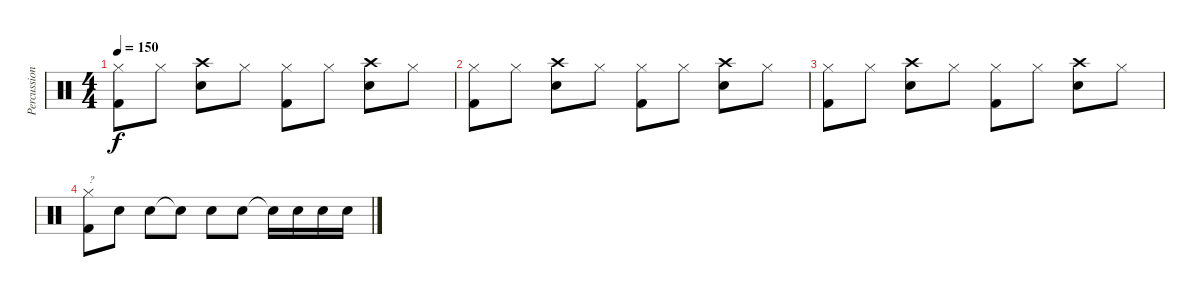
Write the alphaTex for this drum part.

\track ("Percussion" "Percussion") {instrument percussion}
\staff {score}
\articulation defaults
\ts (4 4)
\tempo 150
\clef neutral
\ks c
("Kick (hit) 2" "Hi-Hat (closed)").8{dy f} "Hi-Hat (closed)".8 ("Snare (hit) 2" "Crash high (hit)").8 "Hi-Hat (closed)".8 ("Kick (hit) 2" "Hi-Hat (closed)").8 "Hi-Hat (closed)".8 ("Snare (hit) 2" "Crash high (hit)").8 "Hi-Hat (closed)".8 |
("Kick (hit) 2" "Hi-Hat (closed)").8 "Hi-Hat (closed)".8 ("Snare (hit) 2" "Crash high (hit)").8 "Hi-Hat (closed)".8 ("Kick (hit) 2" "Hi-Hat (closed)").8 "Hi-Hat (closed)".8 ("Snare (hit) 2" "Crash high (hit)").8 "Hi-Hat (closed)".8 |
("Kick (hit) 2" "Hi-Hat (closed)").8 "Hi-Hat (closed)".8 ("Snare (hit) 2" "Crash high (hit)").8 "Hi-Hat (closed)".8 ("Kick (hit) 2" "Hi-Hat (closed)").8 "Hi-Hat (closed)".8 ("Snare (hit) 2" "Crash high (hit)").8 "Hi-Hat (closed)".8 |
("Kick (hit) 2" "Hi-Hat (closed)").8{txt "?"} "Snare (hit) 2".8 "Snare (hit) 2".8 "Snare (hit)"{t}.8 "Snare (hit) 2".8 "Snare (hit) 2".8 "Snare (hit)"{t}.16 "Snare (hit) 2".16 "Snare (hit) 2".16 "Snare (hit) 2".16
